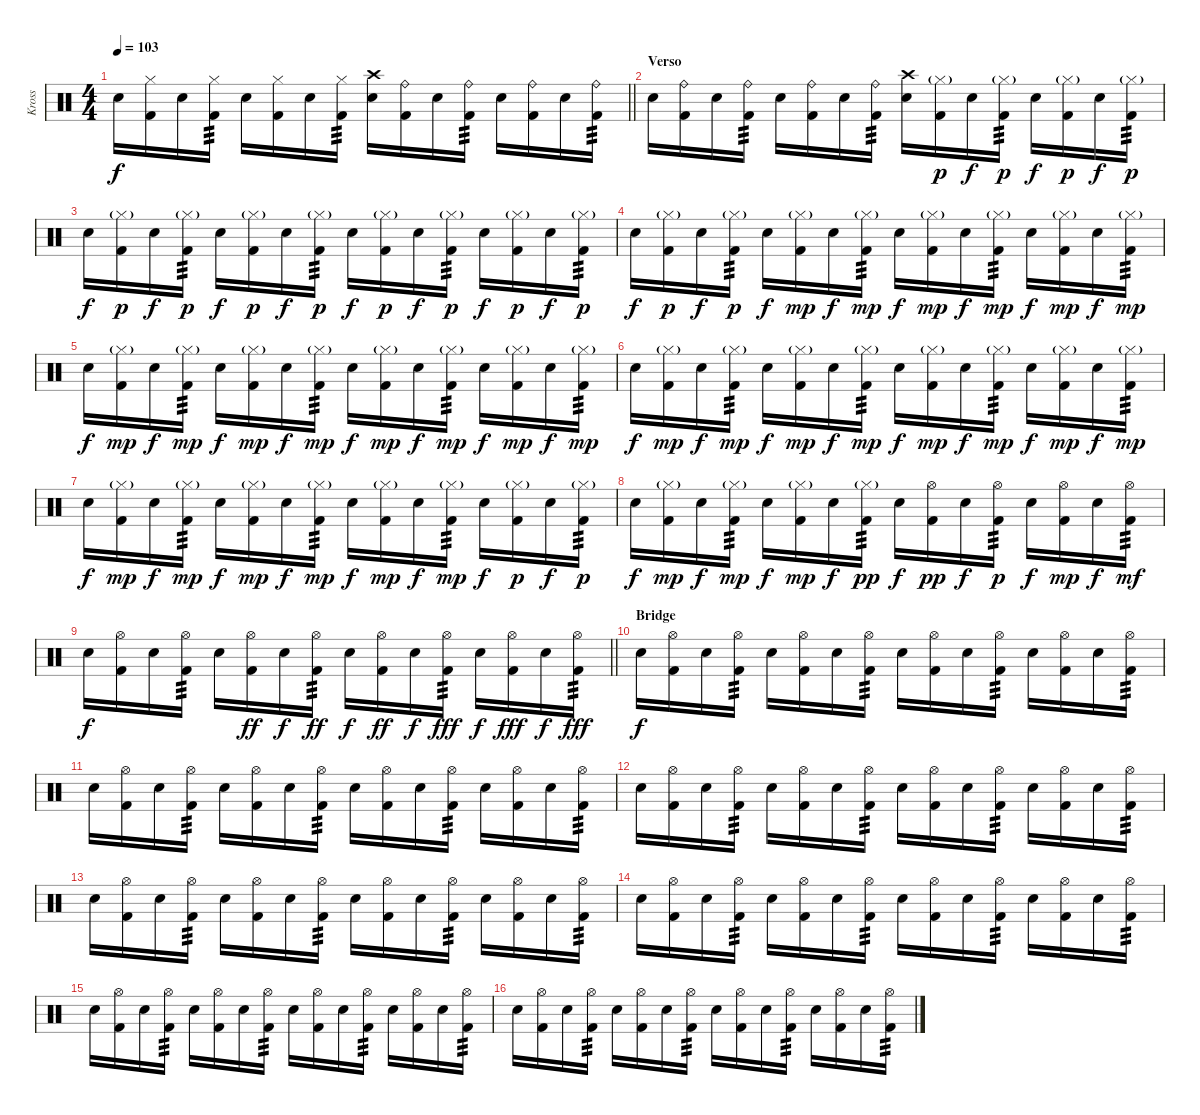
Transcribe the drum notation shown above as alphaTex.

\track ("Kross" "Kross") {instrument percussion}
\staff {score}
\articulation defaults
\ts (4 4)
\tempo 103
\clef neutral
\barLineRight lightlight
\ks c "Electric Snare (hit)".16{dy f}
("Hi-Hat (closed)" "Kick (hit) 2").16 "Electric Snare (hit)".16 ("Hi-Hat (closed)" "Kick (hit) 2").16{tp 3} "Electric Snare (hit)".16 ("Hi-Hat (closed)" "Kick (hit) 2").16 "Electric Snare (hit)".16 ("Hi-Hat (closed)" "Kick (hit) 2").16{tp 3} ("Crash high (hit)" "Electric Snare (hit)").16 ("Ride (bell)" "Kick (hit) 2").16 "Electric Snare (hit)".16 ("Ride (bell)" "Kick (hit) 2").16{tp 3} "Electric Snare (hit)".16 ("Ride (bell)" "Kick (hit) 2").16 "Electric Snare (hit)".16 ("Ride (bell)" "Kick (hit) 2").16{tp 3} |
\section ("" "Verso")
"Electric Snare (hit)".16 ("Ride (bell)" "Kick (hit) 2").16 "Electric Snare (hit)".16 ("Ride (bell)" "Kick (hit) 2").16{tp 3} "Electric Snare (hit)".16 ("Ride (bell)" "Kick (hit) 2").16 "Electric Snare (hit)".16 ("Ride (bell)" "Kick (hit) 2").16{tp 3} ("Crash high (hit)" "Electric Snare (hit)").16 ("Hi-Hat (closed)"{g} "Kick (hit) 2").16{dy p} "Electric Snare (hit)".16{dy f} ("Hi-Hat (closed)"{g} "Kick (hit) 2").16{tp 3 dy p} "Electric Snare (hit)".16{dy f} ("Hi-Hat (closed)"{g} "Kick (hit) 2").16{dy p} "Electric Snare (hit)".16{dy f} ("Hi-Hat (closed)"{g} "Kick (hit) 2").16{tp 3 dy p} |
"Electric Snare (hit)".16{dy f} ("Hi-Hat (closed)"{g} "Kick (hit) 2").16{dy p} "Electric Snare (hit)".16{dy f} ("Hi-Hat (closed)"{g} "Kick (hit) 2").16{tp 3 dy p} "Electric Snare (hit)".16{dy f} ("Hi-Hat (closed)"{g} "Kick (hit) 2").16{dy p} "Electric Snare (hit)".16{dy f} ("Hi-Hat (closed)"{g} "Kick (hit) 2").16{tp 3 dy p} "Electric Snare (hit)".16{dy f} ("Hi-Hat (closed)"{g} "Kick (hit) 2").16{dy p} "Electric Snare (hit)".16{dy f} ("Hi-Hat (closed)"{g} "Kick (hit) 2").16{tp 3 dy p} "Electric Snare (hit)".16{dy f} ("Hi-Hat (closed)"{g} "Kick (hit) 2").16{dy p} "Electric Snare (hit)".16{dy f} ("Hi-Hat (closed)"{g} "Kick (hit) 2").16{tp 3 dy p} |
"Electric Snare (hit)".16{dy f} ("Hi-Hat (closed)"{g} "Kick (hit) 2").16{dy p} "Electric Snare (hit)".16{dy f} ("Hi-Hat (closed)"{g} "Kick (hit) 2").16{tp 3 dy p} "Electric Snare (hit)".16{dy f} ("Hi-Hat (closed)"{g} "Kick (hit) 2").16{dy mp} "Electric Snare (hit)".16{dy f} ("Hi-Hat (closed)"{g} "Kick (hit) 2").16{tp 3 dy mp} "Electric Snare (hit)".16{dy f} ("Hi-Hat (closed)"{g} "Kick (hit) 2").16{dy mp} "Electric Snare (hit)".16{dy f} ("Hi-Hat (closed)"{g} "Kick (hit) 2").16{tp 3 dy mp} "Electric Snare (hit)".16{dy f} ("Hi-Hat (closed)"{g} "Kick (hit) 2").16{dy mp} "Electric Snare (hit)".16{dy f} ("Hi-Hat (closed)"{g} "Kick (hit) 2").16{tp 3 dy mp} |
"Electric Snare (hit)".16{dy f} ("Hi-Hat (closed)"{g} "Kick (hit) 2").16{dy mp} "Electric Snare (hit)".16{dy f} ("Hi-Hat (closed)"{g} "Kick (hit) 2").16{tp 3 dy mp} "Electric Snare (hit)".16{dy f} ("Hi-Hat (closed)"{g} "Kick (hit) 2").16{dy mp} "Electric Snare (hit)".16{dy f} ("Hi-Hat (closed)"{g} "Kick (hit) 2").16{tp 3 dy mp} "Electric Snare (hit)".16{dy f} ("Hi-Hat (closed)"{g} "Kick (hit) 2").16{dy mp} "Electric Snare (hit)".16{dy f} ("Hi-Hat (closed)"{g} "Kick (hit) 2").16{tp 3 dy mp} "Electric Snare (hit)".16{dy f} ("Hi-Hat (closed)"{g} "Kick (hit) 2").16{dy mp} "Electric Snare (hit)".16{dy f} ("Hi-Hat (closed)"{g} "Kick (hit) 2").16{tp 3 dy mp} |
"Electric Snare (hit)".16{dy f} ("Hi-Hat (closed)"{g} "Kick (hit) 2").16{dy mp} "Electric Snare (hit)".16{dy f} ("Hi-Hat (closed)"{g} "Kick (hit) 2").16{tp 3 dy mp} "Electric Snare (hit)".16{dy f} ("Hi-Hat (closed)"{g} "Kick (hit) 2").16{dy mp} "Electric Snare (hit)".16{dy f} ("Hi-Hat (closed)"{g} "Kick (hit) 2").16{tp 3 dy mp} "Electric Snare (hit)".16{dy f} ("Hi-Hat (closed)"{g} "Kick (hit) 2").16{dy mp} "Electric Snare (hit)".16{dy f} ("Hi-Hat (closed)"{g} "Kick (hit) 2").16{tp 3 dy mp} "Electric Snare (hit)".16{dy f} ("Hi-Hat (closed)"{g} "Kick (hit) 2").16{dy mp} "Electric Snare (hit)".16{dy f} ("Hi-Hat (closed)"{g} "Kick (hit) 2").16{tp 3 dy mp} |
"Electric Snare (hit)".16{dy f} ("Hi-Hat (closed)"{g} "Kick (hit) 2").16{dy mp} "Electric Snare (hit)".16{dy f} ("Hi-Hat (closed)"{g} "Kick (hit) 2").16{tp 3 dy mp} "Electric Snare (hit)".16{dy f} ("Hi-Hat (closed)"{g} "Kick (hit) 2").16{dy mp} "Electric Snare (hit)".16{dy f} ("Hi-Hat (closed)"{g} "Kick (hit) 2").16{tp 3 dy mp} "Electric Snare (hit)".16{dy f} ("Hi-Hat (closed)"{g} "Kick (hit) 2").16{dy mp} "Electric Snare (hit)".16{dy f} ("Hi-Hat (closed)"{g} "Kick (hit) 2").16{tp 3 dy mp} "Electric Snare (hit)".16{dy f} ("Hi-Hat (closed)"{g} "Kick (hit) 2").16{dy p} "Electric Snare (hit)".16{dy f} ("Hi-Hat (closed)"{g} "Kick (hit) 2").16{tp 3 dy p} |
"Electric Snare (hit)".16{dy f} ("Hi-Hat (closed)"{g} "Kick (hit) 2").16{dy mp} "Electric Snare (hit)".16{dy f} ("Hi-Hat (closed)"{g} "Kick (hit) 2").16{tp 3 dy mp} "Electric Snare (hit)".16{dy f} ("Hi-Hat (closed)"{g} "Kick (hit) 2").16{dy mp} "Electric Snare (hit)".16{dy f} ("Hi-Hat (closed)"{g} "Kick (hit) 2").16{tp 3 dy pp} "Electric Snare (hit)".16{dy f} ("Hi-Hat (open)" "Kick (hit) 2").16{dy pp} "Electric Snare (hit)".16{dy f} ("Hi-Hat (open)" "Kick (hit) 2").16{tp 3 dy p} "Electric Snare (hit)".16{dy f} ("Hi-Hat (open)" "Kick (hit) 2").16{dy mp} "Electric Snare (hit)".16{dy f} ("Hi-Hat (open)" "Kick (hit) 2").16{tp 3 dy mf} |
\barLineRight lightlight "Electric Snare (hit)".16{dy f}
("Hi-Hat (open)" "Kick (hit) 2").16 "Electric Snare (hit)".16 ("Hi-Hat (open)" "Kick (hit) 2").16{tp 3} "Electric Snare (hit)".16 ("Hi-Hat (open)" "Kick (hit) 2").16{dy ff} "Electric Snare (hit)".16{dy f} ("Hi-Hat (open)" "Kick (hit) 2").16{tp 3 dy ff} "Electric Snare (hit)".16{dy f} ("Hi-Hat (open)" "Kick (hit) 2").16{dy ff} "Electric Snare (hit)".16{dy f} ("Hi-Hat (open)" "Kick (hit) 2").16{tp 3 dy fff} "Electric Snare (hit)".16{dy f} ("Hi-Hat (open)" "Kick (hit) 2").16{dy fff} "Electric Snare (hit)".16{dy f} ("Hi-Hat (open)" "Kick (hit) 2").16{tp 3 dy fff} |
\section ("" "Bridge")
"Electric Snare (hit)".16{dy f} ("Hi-Hat (open)" "Kick (hit) 2").16 "Electric Snare (hit)".16 ("Hi-Hat (open)" "Kick (hit) 2").16{tp 3} "Electric Snare (hit)".16 ("Hi-Hat (open)" "Kick (hit) 2").16 "Electric Snare (hit)".16 ("Hi-Hat (open)" "Kick (hit) 2").16{tp 3} "Electric Snare (hit)".16 ("Hi-Hat (open)" "Kick (hit) 2").16 "Electric Snare (hit)".16 ("Hi-Hat (open)" "Kick (hit) 2").16{tp 3} "Electric Snare (hit)".16 ("Hi-Hat (open)" "Kick (hit) 2").16 "Electric Snare (hit)".16 ("Hi-Hat (open)" "Kick (hit) 2").16{tp 3} |
"Electric Snare (hit)".16 ("Hi-Hat (open)" "Kick (hit) 2").16 "Electric Snare (hit)".16 ("Hi-Hat (open)" "Kick (hit) 2").16{tp 3} "Electric Snare (hit)".16 ("Hi-Hat (open)" "Kick (hit) 2").16 "Electric Snare (hit)".16 ("Hi-Hat (open)" "Kick (hit) 2").16{tp 3} "Electric Snare (hit)".16 ("Hi-Hat (open)" "Kick (hit) 2").16 "Electric Snare (hit)".16 ("Hi-Hat (open)" "Kick (hit) 2").16{tp 3} "Electric Snare (hit)".16 ("Hi-Hat (open)" "Kick (hit) 2").16 "Electric Snare (hit)".16 ("Hi-Hat (open)" "Kick (hit) 2").16{tp 3} |
"Electric Snare (hit)".16 ("Hi-Hat (open)" "Kick (hit) 2").16 "Electric Snare (hit)".16 ("Hi-Hat (open)" "Kick (hit) 2").16{tp 3} "Electric Snare (hit)".16 ("Hi-Hat (open)" "Kick (hit) 2").16 "Electric Snare (hit)".16 ("Hi-Hat (open)" "Kick (hit) 2").16{tp 3} "Electric Snare (hit)".16 ("Hi-Hat (open)" "Kick (hit) 2").16 "Electric Snare (hit)".16 ("Hi-Hat (open)" "Kick (hit) 2").16{tp 3} "Electric Snare (hit)".16 ("Hi-Hat (open)" "Kick (hit) 2").16 "Electric Snare (hit)".16 ("Hi-Hat (open)" "Kick (hit) 2").16{tp 3} |
"Electric Snare (hit)".16 ("Hi-Hat (open)" "Kick (hit) 2").16 "Electric Snare (hit)".16 ("Hi-Hat (open)" "Kick (hit) 2").16{tp 3} "Electric Snare (hit)".16 ("Hi-Hat (open)" "Kick (hit) 2").16 "Electric Snare (hit)".16 ("Hi-Hat (open)" "Kick (hit) 2").16{tp 3} "Electric Snare (hit)".16 ("Hi-Hat (open)" "Kick (hit) 2").16 "Electric Snare (hit)".16 ("Hi-Hat (open)" "Kick (hit) 2").16{tp 3} "Electric Snare (hit)".16 ("Hi-Hat (open)" "Kick (hit) 2").16 "Electric Snare (hit)".16 ("Hi-Hat (open)" "Kick (hit) 2").16{tp 3} |
"Electric Snare (hit)".16 ("Hi-Hat (open)" "Kick (hit) 2").16 "Electric Snare (hit)".16 ("Hi-Hat (open)" "Kick (hit) 2").16{tp 3} "Electric Snare (hit)".16 ("Hi-Hat (open)" "Kick (hit) 2").16 "Electric Snare (hit)".16 ("Hi-Hat (open)" "Kick (hit) 2").16{tp 3} "Electric Snare (hit)".16 ("Hi-Hat (open)" "Kick (hit) 2").16 "Electric Snare (hit)".16 ("Hi-Hat (open)" "Kick (hit) 2").16{tp 3} "Electric Snare (hit)".16 ("Hi-Hat (open)" "Kick (hit) 2").16 "Electric Snare (hit)".16 ("Hi-Hat (open)" "Kick (hit) 2").16{tp 3} |
"Electric Snare (hit)".16 ("Hi-Hat (open)" "Kick (hit) 2").16 "Electric Snare (hit)".16 ("Hi-Hat (open)" "Kick (hit) 2").16{tp 3} "Electric Snare (hit)".16 ("Hi-Hat (open)" "Kick (hit) 2").16 "Electric Snare (hit)".16 ("Hi-Hat (open)" "Kick (hit) 2").16{tp 3} "Electric Snare (hit)".16 ("Hi-Hat (open)" "Kick (hit) 2").16 "Electric Snare (hit)".16 ("Hi-Hat (open)" "Kick (hit) 2").16{tp 3} "Electric Snare (hit)".16 ("Hi-Hat (open)" "Kick (hit) 2").16 "Electric Snare (hit)".16 ("Hi-Hat (open)" "Kick (hit) 2").16{tp 3} |
"Electric Snare (hit)".16 ("Hi-Hat (open)" "Kick (hit) 2").16 "Electric Snare (hit)".16 ("Hi-Hat (open)" "Kick (hit) 2").16{tp 3} "Electric Snare (hit)".16 ("Hi-Hat (open)" "Kick (hit) 2").16 "Electric Snare (hit)".16 ("Hi-Hat (open)" "Kick (hit) 2").16{tp 3} "Electric Snare (hit)".16 ("Hi-Hat (open)" "Kick (hit) 2").16 "Electric Snare (hit)".16 ("Hi-Hat (open)" "Kick (hit) 2").16{tp 3} "Electric Snare (hit)".16 ("Hi-Hat (open)" "Kick (hit) 2").16 "Electric Snare (hit)".16 ("Hi-Hat (open)" "Kick (hit) 2").16{tp 3}
